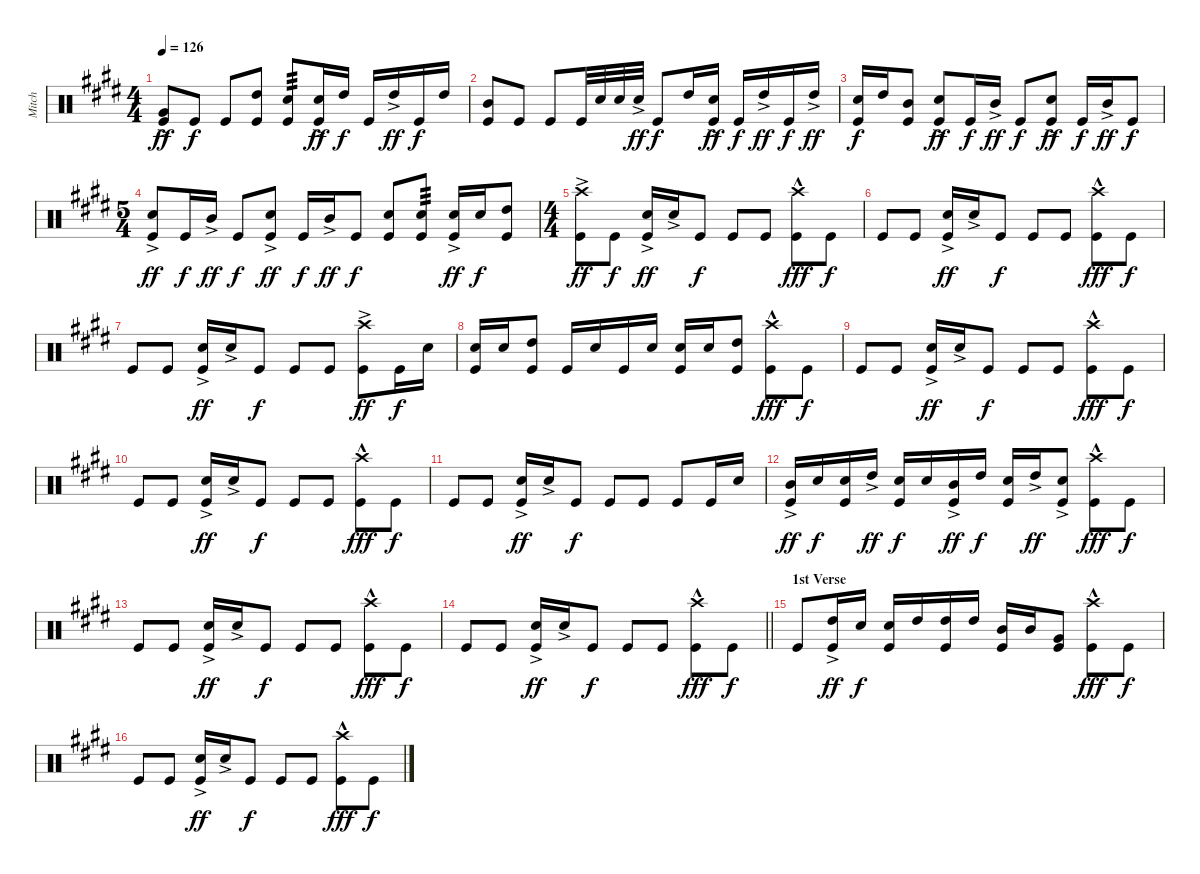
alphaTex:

\track ("Mitch" "Mitch") {instrument percussion}
\staff {score}
\articulation defaults
\ts (4 4)
\tempo 126
\clef neutral
\ks e
("Very Low Tom (hit)"{ac} "Kick (hit)").8{dy ff} "Kick (hit)".8{dy f} "Kick (hit)".8 ("High Tom (hit)" "Kick (hit)").8 ("Snare (hit) 2" "Kick (hit)").8{tp 3} ("Snare (hit) 2"{ac} "Kick (hit)").16{dy ff} "High Tom (hit)".16{dy f} "Kick (hit)".16 "High Tom (hit)"{ac}.16{dy ff} "Kick (hit)".16{dy f} "High Tom (hit)".16 |
("Mid Tom (hit)" "Kick (hit)").8 "Kick (hit)".8 "Kick (hit)".8 "Kick (hit)".32 "Snare (hit) 2".32 "Snare (hit) 2".32 "Snare (hit) 2"{ac}.32{dy ff} "Kick (hit)".8{dy f} "High Tom (hit)".16 ("Snare (hit) 2"{ac} "Kick (hit)").16{dy ff} "Kick (hit)".16{dy f} "High Tom (hit)"{ac}.16{dy ff} "Kick (hit)".16{dy f} "High Tom (hit)"{ac}.16{dy ff} |
("Snare (hit) 2" "Kick (hit)").16{dy f} "High Tom (hit)".16 ("Mid Tom (hit)" "Kick (hit)").8 ("Snare (hit) 2"{ac} "Kick (hit)").8{dy ff} "Kick (hit)".16{dy f} "Mid Tom (hit)"{ac}.16{dy ff} "Kick (hit)".8{dy f} ("Snare (hit) 2"{ac} "Kick (hit)").8{dy ff} "Kick (hit)".16{dy f} "Mid Tom (hit)"{ac}.16{dy ff} "Kick (hit)".8{dy f} |
\ts (5 4)
("Snare (hit) 2"{ac} "Kick (hit)").8{dy ff} "Kick (hit)".16{dy f} "Mid Tom (hit)"{ac}.16{dy ff} "Kick (hit)".8{dy f} ("Snare (hit) 2"{ac} "Kick (hit)").8{dy ff} "Kick (hit)".16{dy f} "Mid Tom (hit)"{ac}.16{dy ff} "Kick (hit)".8{dy f} ("Snare (hit) 2" "Kick (hit)").8 ("Snare (hit) 2" "Kick (hit)").8{tp 3} ("Snare (hit) 2"{ac} "Kick (hit)").16{dy ff} "Snare (hit) 2".16{dy f} ("High Tom (hit)" "Kick (hit)").8 |
\ts (4 4)
("Crash high (hit)"{ac} "Kick (hit)").8{dy ff} "Kick (hit)".8{dy f} ("Snare (hit) 2"{ac} "Kick (hit)").16{dy ff} "Snare (hit) 2"{ac}.16 "Kick (hit)".8{dy f} "Kick (hit)".8 "Kick (hit)".8 ("Crash high (hit)"{hac} "Kick (hit)").8{dy fff} "Kick (hit)".8{dy f} |
"Kick (hit)".8 "Kick (hit)".8 ("Snare (hit) 2"{ac} "Kick (hit)").16{dy ff} "Snare (hit) 2"{ac}.16 "Kick (hit)".8{dy f} "Kick (hit)".8 "Kick (hit)".8 ("Crash high (hit)"{hac} "Kick (hit)").8{dy fff} "Kick (hit)".8{dy f} |
"Kick (hit)".8 "Kick (hit)".8 ("Snare (hit) 2"{ac} "Kick (hit)").16{dy ff} "Snare (hit) 2"{ac}.16 "Kick (hit)".8{dy f} "Kick (hit)".8 "Kick (hit)".8 ("Crash high (hit)"{ac} "Kick (hit)").8{dy ff} "Kick (hit)".16{dy f} "Snare (hit) 2".16 |
("Snare (hit) 2" "Kick (hit)").16 "Snare (hit) 2".16 ("High Tom (hit)" "Kick (hit)").8 "Kick (hit)".16 "Snare (hit) 2".16 "Kick (hit)".16 "Snare (hit) 2".16 ("Snare (hit) 2" "Kick (hit)").16 "Snare (hit) 2".16 ("High Tom (hit)" "Kick (hit)").8 ("Crash high (hit)"{hac} "Kick (hit)").8{dy fff} "Kick (hit)".8{dy f} |
"Kick (hit)".8 "Kick (hit)".8 ("Snare (hit) 2"{ac} "Kick (hit)").16{dy ff} "Snare (hit) 2"{ac}.16 "Kick (hit)".8{dy f} "Kick (hit)".8 "Kick (hit)".8 ("Crash high (hit)"{hac} "Kick (hit)").8{dy fff} "Kick (hit)".8{dy f} |
"Kick (hit)".8 "Kick (hit)".8 ("Snare (hit) 2"{ac} "Kick (hit)").16{dy ff} "Snare (hit) 2"{ac}.16 "Kick (hit)".8{dy f} "Kick (hit)".8 "Kick (hit)".8 ("Crash high (hit)"{hac} "Kick (hit)").8{dy fff} "Kick (hit)".8{dy f} |
"Kick (hit)".8 "Kick (hit)".8 ("Snare (hit) 2"{ac} "Kick (hit)").16{dy ff} "Snare (hit) 2"{ac}.16 "Kick (hit)".8{dy f} "Kick (hit)".8 "Kick (hit)".8 "Kick (hit)".8 "Kick (hit)".16 "Snare (hit) 2".16 |
("Mid Tom (hit)"{ac} "Kick (hit)").16{dy ff} "Snare (hit) 2".16{dy f} ("Snare (hit) 2" "Kick (hit)").16 "High Tom (hit)"{ac}.16{dy ff} ("Snare (hit) 2" "Kick (hit)").16{dy f} "Snare (hit) 2".16 ("Mid Tom (hit)"{ac} "Kick (hit)").16{dy ff} "High Tom (hit)".16{dy f} ("Snare (hit) 2" "Kick (hit)").16 "High Tom (hit)"{ac}.16{dy ff} ("Snare (hit) 2"{ac} "Kick (hit)").8 ("Crash high (hit)"{hac} "Kick (hit)").8{dy fff} "Kick (hit)".8{dy f} |
"Kick (hit)".8 "Kick (hit)".8 ("Snare (hit) 2"{ac} "Kick (hit)").16{dy ff} "Snare (hit) 2"{ac}.16 "Kick (hit)".8{dy f} "Kick (hit)".8 "Kick (hit)".8 ("Crash high (hit)"{hac} "Kick (hit)").8{dy fff} "Kick (hit)".8{dy f} |
\barLineRight lightlight "Kick (hit)".8 "Kick (hit)".8
("Snare (hit) 2"{ac} "Kick (hit)").16{dy ff} "Snare (hit) 2"{ac}.16 "Kick (hit)".8{dy f} "Kick (hit)".8 "Kick (hit)".8 ("Crash high (hit)"{hac} "Kick (hit)").8{dy fff} "Kick (hit)".8{dy f} |
\section ("" "1st Verse")
"Kick (hit)".8 ("High Tom (hit)"{ac} "Kick (hit)").16{dy ff} "Snare (hit) 2".16{dy f} ("Snare (hit) 2" "Kick (hit)").16 "High Tom (hit)".16 ("High Tom (hit)" "Kick (hit)").16 "High Tom (hit)".16 ("Mid Tom (hit)" "Kick (hit)").16 "Mid Tom (hit)".16 ("Very Low Tom (hit)" "Kick (hit)").8 ("Crash high (hit)"{hac} "Kick (hit)").8{dy fff} "Kick (hit)".8{dy f} |
"Kick (hit)".8 "Kick (hit)".8 ("Snare (hit) 2"{ac} "Kick (hit)").16{dy ff} "Snare (hit) 2"{ac}.16 "Kick (hit)".8{dy f} "Kick (hit)".8 "Kick (hit)".8 ("Crash high (hit)"{hac} "Kick (hit)").8{dy fff} "Kick (hit)".8{dy f}
